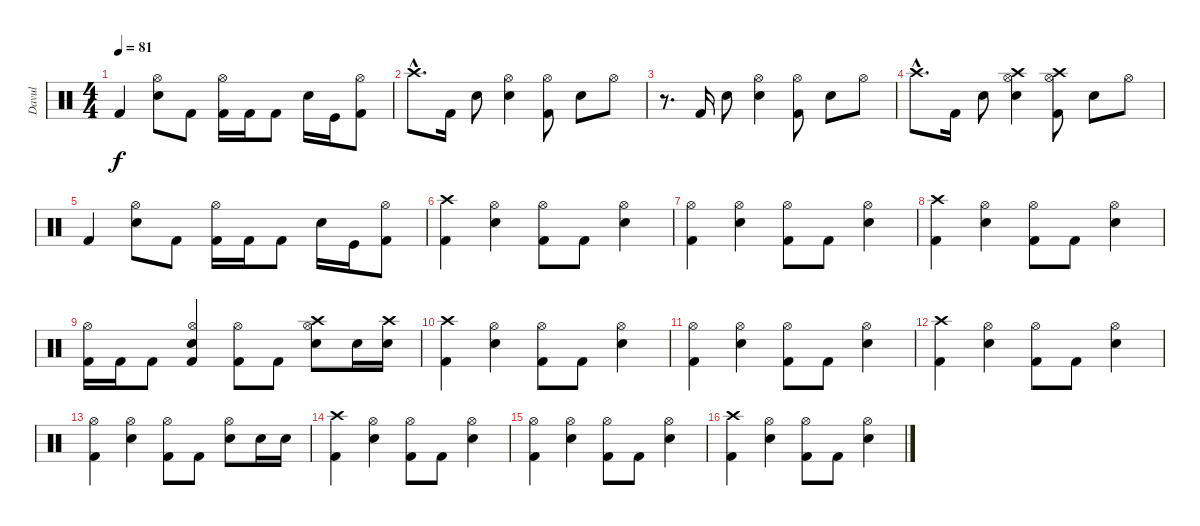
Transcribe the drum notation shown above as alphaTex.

\track ("Davul" "Davul") {instrument percussion}
\staff {score}
\articulation defaults
\ts (4 4)
\tempo 81
\clef neutral
\ks c "Kick (hit) 2".4{dy f}
("Hi-Hat (open)" "Snare (hit) 2").8 "Kick (hit) 2".8 ("Hi-Hat (open)" "Kick (hit) 2").16 "Kick (hit) 2".16 "Kick (hit) 2".8 "Snare (hit) 2".16 "Kick (hit)".16 ("Hi-Hat (open)" "Kick (hit) 2").8 |
"Crash high (hit)"{hac}.8{d} "Kick (hit) 2".16 "Snare (hit) 2".8 ("Hi-Hat (open)" "Snare (hit) 2").4 ("Hi-Hat (open)" "Kick (hit) 2").8 "Snare (hit) 2".8 "Hi-Hat (open)".8 |
r.8{d} "Kick (hit) 2".16 "Snare (hit) 2".8 ("Hi-Hat (open)" "Snare (hit) 2").4 ("Hi-Hat (open)" "Kick (hit) 2").8 "Snare (hit) 2".8 "Hi-Hat (open)".8 |
"Crash high (hit)"{hac}.8{d} "Kick (hit) 2".16 "Snare (hit) 2".8 ("Hi-Hat (open)" "Snare (hit) 2" "Crash high (hit)").4 ("Hi-Hat (open)" "Crash high (hit)" "Kick (hit) 2").8 "Snare (hit) 2".8 "Hi-Hat (open)".8 |
"Kick (hit) 2".4 ("Hi-Hat (open)" "Snare (hit) 2").8 "Kick (hit) 2".8 ("Hi-Hat (open)" "Kick (hit) 2").16 "Kick (hit) 2".16 "Kick (hit) 2".8 "Snare (hit) 2".16 "Kick (hit)".16 ("Hi-Hat (open)" "Kick (hit) 2").8 |
("Crash high (hit)" "Kick (hit) 2").4 ("Hi-Hat (open)" "Snare (hit) 2").4 ("Hi-Hat (open)" "Kick (hit) 2").8 "Kick (hit) 2".8 ("Hi-Hat (open)" "Snare (hit) 2").4 |
("Hi-Hat (open)" "Kick (hit) 2").4 ("Hi-Hat (open)" "Snare (hit) 2").4 ("Hi-Hat (open)" "Kick (hit) 2").8 "Kick (hit) 2".8 ("Hi-Hat (open)" "Snare (hit) 2").4 |
("Crash high (hit)" "Kick (hit) 2").4 ("Hi-Hat (open)" "Snare (hit) 2").4 ("Hi-Hat (open)" "Kick (hit) 2").8 "Kick (hit) 2".8 ("Hi-Hat (open)" "Snare (hit) 2").4 |
("Hi-Hat (open)" "Kick (hit) 2").16 "Kick (hit) 2".16 "Kick (hit) 2".8 ("Hi-Hat (open)" "Snare (hit) 2" "Kick (hit) 2").4 ("Hi-Hat (open)" "Kick (hit) 2").8 "Kick (hit) 2".8 ("Hi-Hat (open)" "Snare (hit) 2" "Crash high (hit)").8 "Snare (hit) 2".16 ("Snare (hit) 2" "Crash high (hit)").16 |
("Crash high (hit)" "Kick (hit) 2").4 ("Hi-Hat (open)" "Snare (hit) 2").4 ("Hi-Hat (open)" "Kick (hit) 2").8 "Kick (hit) 2".8 ("Hi-Hat (open)" "Snare (hit) 2").4 |
("Hi-Hat (open)" "Kick (hit) 2").4 ("Hi-Hat (open)" "Snare (hit) 2").4 ("Hi-Hat (open)" "Kick (hit) 2").8 "Kick (hit) 2".8 ("Hi-Hat (open)" "Snare (hit) 2").4 |
("Crash high (hit)" "Kick (hit) 2").4 ("Hi-Hat (open)" "Snare (hit) 2").4 ("Hi-Hat (open)" "Kick (hit) 2").8 "Kick (hit) 2".8 ("Hi-Hat (open)" "Snare (hit) 2").4 |
("Hi-Hat (open)" "Kick (hit) 2").4 ("Hi-Hat (open)" "Snare (hit) 2").4 ("Hi-Hat (open)" "Kick (hit) 2").8 "Kick (hit) 2".8 ("Hi-Hat (open)" "Snare (hit) 2").8 "Snare (hit) 2".16 "Snare (hit) 2".16 |
("Crash high (hit)" "Kick (hit) 2").4 ("Hi-Hat (open)" "Snare (hit) 2").4 ("Hi-Hat (open)" "Kick (hit) 2").8 "Kick (hit) 2".8 ("Hi-Hat (open)" "Snare (hit) 2").4 |
("Hi-Hat (open)" "Kick (hit) 2").4 ("Hi-Hat (open)" "Snare (hit) 2").4 ("Hi-Hat (open)" "Kick (hit) 2").8 "Kick (hit) 2".8 ("Hi-Hat (open)" "Snare (hit) 2").4 |
("Crash high (hit)" "Kick (hit) 2").4 ("Hi-Hat (open)" "Snare (hit) 2").4 ("Hi-Hat (open)" "Kick (hit) 2").8 "Kick (hit) 2".8 ("Hi-Hat (open)" "Snare (hit) 2").4
